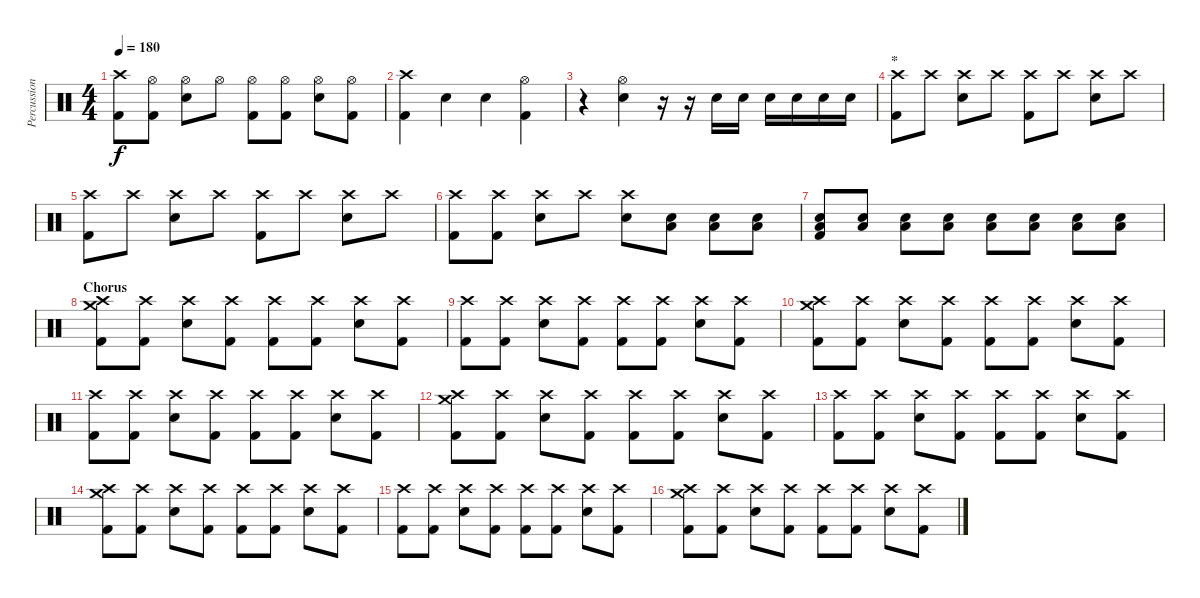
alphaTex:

\track ("Percussion" "Percussion") {instrument percussion}
\staff {score}
\articulation defaults
\ts (4 4)
\tempo 180
\clef neutral
\ks c
("Crash high (hit)" "Kick (hit) 2").8{dy f} ("Hi-Hat (open)" "Kick (hit) 2").8 ("Hi-Hat (open)" "Snare (hit) 2").8 "Hi-Hat (open)".8 ("Hi-Hat (open)" "Kick (hit) 2").8 ("Hi-Hat (open)" "Kick (hit) 2").8 ("Hi-Hat (open)" "Snare (hit) 2").8 ("Hi-Hat (open)" "Kick (hit) 2").8 |
("Crash high (hit)" "Kick (hit) 2").4 "Snare (hit) 2".4 "Snare (hit) 2".4 ("Hi-Hat (open)" "Kick (hit) 2").4 |
r.4 ("Hi-Hat (open)" "Snare (hit) 2").4 r.16 r.16 "Snare (hit) 2".16 "Snare (hit) 2".16 "Snare (hit) 2".16 "Snare (hit) 2".16 "Snare (hit) 2".16 "Snare (hit) 2".16 |
\section ("" "*")
("Crash high (hit)" "Kick (hit) 2").8 "Crash high (hit)".8 ("Crash high (hit)" "Snare (hit) 2").8 "Crash high (hit)".8 ("Crash high (hit)" "Kick (hit) 2").8 "Crash high (hit)".8 ("Crash high (hit)" "Snare (hit) 2").8 "Crash high (hit)".8 |
("Crash high (hit)" "Kick (hit) 2").8 "Crash high (hit)".8 ("Crash high (hit)" "Snare (hit) 2").8 "Crash high (hit)".8 ("Crash high (hit)" "Kick (hit) 2").8 "Crash high (hit)".8 ("Crash high (hit)" "Snare (hit) 2").8 "Crash high (hit)".8 |
("Crash high (hit)" "Kick (hit) 2").8 ("Crash high (hit)" "Kick (hit) 2").8 ("Crash high (hit)" "Snare (hit) 2").8 "Crash high (hit)".8 ("Crash high (hit)" "Snare (hit) 2").8 ("Low Floor Tom (hit)" "Snare (hit) 2").8 ("Low Floor Tom (hit)" "Snare (hit) 2").8 ("Low Floor Tom (hit)" "Snare (hit) 2").8 |
("Low Floor Tom (hit)" "Snare (hit) 2" "Kick (hit) 2").8 ("Low Floor Tom (hit)" "Snare (hit) 2").8 ("Low Floor Tom (hit)" "Snare (hit) 2").8 ("Low Floor Tom (hit)" "Snare (hit) 2").8 ("Low Floor Tom (hit)" "Snare (hit) 2").8 ("Low Floor Tom (hit)" "Snare (hit) 2").8 ("Low Floor Tom (hit)" "Snare (hit) 2").8 ("Low Floor Tom (hit)" "Snare (hit) 2").8 |
\section ("" "Chorus")
("Crash high (hit)" "Kick (hit) 2" "Crash medium (hit)").8 ("Crash high (hit)" "Kick (hit) 2").8 ("Crash high (hit)" "Snare (hit) 2").8 ("Crash high (hit)" "Kick (hit) 2").8 ("Crash high (hit)" "Kick (hit) 2").8 ("Crash high (hit)" "Kick (hit) 2").8 ("Crash high (hit)" "Snare (hit) 2").8 ("Crash high (hit)" "Kick (hit) 2").8 |
("Crash high (hit)" "Kick (hit) 2").8 ("Crash high (hit)" "Kick (hit) 2").8 ("Crash high (hit)" "Snare (hit) 2").8 ("Crash high (hit)" "Kick (hit) 2").8 ("Crash high (hit)" "Kick (hit) 2").8 ("Crash high (hit)" "Kick (hit) 2").8 ("Crash high (hit)" "Snare (hit) 2").8 ("Crash high (hit)" "Kick (hit) 2").8 |
("Crash high (hit)" "Kick (hit) 2" "Crash medium (hit)").8 ("Crash high (hit)" "Kick (hit) 2").8 ("Crash high (hit)" "Snare (hit) 2").8 ("Crash high (hit)" "Kick (hit) 2").8 ("Crash high (hit)" "Kick (hit) 2").8 ("Crash high (hit)" "Kick (hit) 2").8 ("Crash high (hit)" "Snare (hit) 2").8 ("Crash high (hit)" "Kick (hit) 2").8 |
("Crash high (hit)" "Kick (hit) 2").8 ("Crash high (hit)" "Kick (hit) 2").8 ("Crash high (hit)" "Snare (hit) 2").8 ("Crash high (hit)" "Kick (hit) 2").8 ("Crash high (hit)" "Kick (hit) 2").8 ("Crash high (hit)" "Kick (hit) 2").8 ("Crash high (hit)" "Snare (hit) 2").8 ("Crash high (hit)" "Kick (hit) 2").8 |
("Crash high (hit)" "Kick (hit) 2" "Crash medium (hit)").8 ("Crash high (hit)" "Kick (hit) 2").8 ("Crash high (hit)" "Snare (hit) 2").8 ("Crash high (hit)" "Kick (hit) 2").8 ("Crash high (hit)" "Kick (hit) 2").8 ("Crash high (hit)" "Kick (hit) 2").8 ("Crash high (hit)" "Snare (hit) 2").8 ("Crash high (hit)" "Kick (hit) 2").8 |
("Crash high (hit)" "Kick (hit) 2").8 ("Crash high (hit)" "Kick (hit) 2").8 ("Crash high (hit)" "Snare (hit) 2").8 ("Crash high (hit)" "Kick (hit) 2").8 ("Crash high (hit)" "Kick (hit) 2").8 ("Crash high (hit)" "Kick (hit) 2").8 ("Crash high (hit)" "Snare (hit) 2").8 ("Crash high (hit)" "Kick (hit) 2").8 |
("Crash high (hit)" "Kick (hit) 2" "Crash medium (hit)").8 ("Crash high (hit)" "Kick (hit) 2").8 ("Crash high (hit)" "Snare (hit) 2").8 ("Crash high (hit)" "Kick (hit) 2").8 ("Crash high (hit)" "Kick (hit) 2").8 ("Crash high (hit)" "Kick (hit) 2").8 ("Crash high (hit)" "Snare (hit) 2").8 ("Crash high (hit)" "Kick (hit) 2").8 |
("Crash high (hit)" "Kick (hit) 2").8 ("Crash high (hit)" "Kick (hit) 2").8 ("Crash high (hit)" "Snare (hit) 2").8 ("Crash high (hit)" "Kick (hit) 2").8 ("Crash high (hit)" "Kick (hit) 2").8 ("Crash high (hit)" "Kick (hit) 2").8 ("Crash high (hit)" "Snare (hit) 2").8 ("Crash high (hit)" "Kick (hit) 2").8 |
("Crash high (hit)" "Kick (hit) 2" "Crash medium (hit)").8 ("Crash high (hit)" "Kick (hit) 2").8 ("Crash high (hit)" "Snare (hit) 2").8 ("Crash high (hit)" "Kick (hit) 2").8 ("Crash high (hit)" "Kick (hit) 2").8 ("Crash high (hit)" "Kick (hit) 2").8 ("Crash high (hit)" "Snare (hit) 2").8 ("Crash high (hit)" "Kick (hit) 2").8
